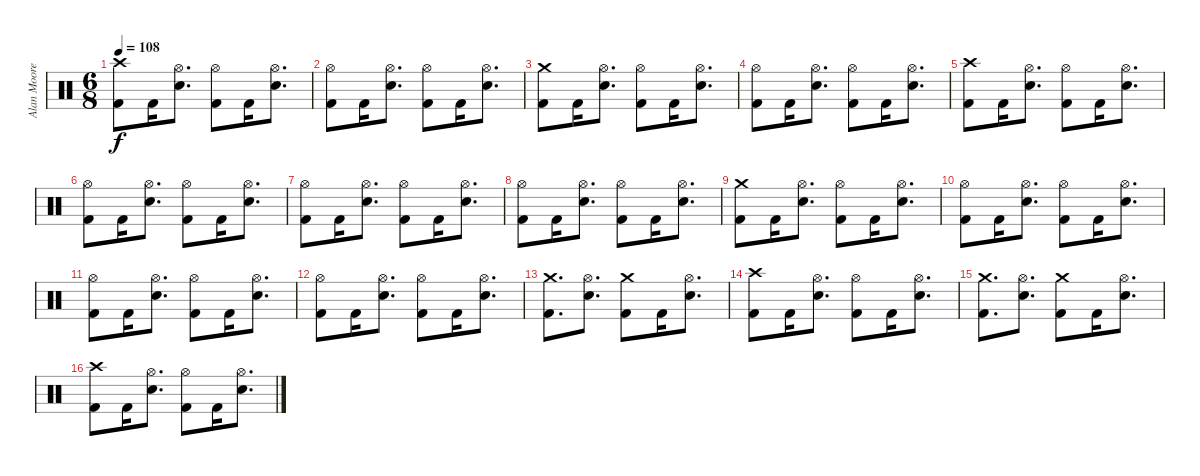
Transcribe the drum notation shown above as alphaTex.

\track ("Alan Moore" "Alan Moore") {instrument percussion}
\staff {score}
\articulation defaults
\ts (6 8)
\tempo 108
\clef neutral
\ks c
("Crash high (hit)" "Kick (hit) 2").8{dy f} "Kick (hit) 2".16 ("Hi-Hat (open)" "Snare (hit) 2").8{d} ("Hi-Hat (open)" "Kick (hit) 2").8 "Kick (hit) 2".16 ("Hi-Hat (open)" "Snare (hit) 2").8{d} |
("Hi-Hat (open)" "Kick (hit) 2").8 "Kick (hit) 2".16 ("Hi-Hat (open)" "Snare (hit) 2").8{d} ("Hi-Hat (open)" "Kick (hit) 2").8 "Kick (hit) 2".16 ("Hi-Hat (open)" "Snare (hit) 2").8{d} |
("Crash medium (hit)" "Kick (hit) 2").8 "Kick (hit) 2".16 ("Hi-Hat (open)" "Snare (hit) 2").8{d} ("Hi-Hat (open)" "Kick (hit) 2").8 "Kick (hit) 2".16 ("Hi-Hat (open)" "Snare (hit) 2").8{d} |
("Hi-Hat (open)" "Kick (hit) 2").8 "Kick (hit) 2".16 ("Hi-Hat (open)" "Snare (hit) 2").8{d} ("Hi-Hat (open)" "Kick (hit) 2").8 "Kick (hit) 2".16 ("Hi-Hat (open)" "Snare (hit) 2").8{d} |
("Crash high (hit)" "Kick (hit) 2").8 "Kick (hit) 2".16 ("Hi-Hat (open)" "Snare (hit) 2").8{d} ("Hi-Hat (open)" "Kick (hit) 2").8 "Kick (hit) 2".16 ("Hi-Hat (open)" "Snare (hit) 2").8{d} |
("Hi-Hat (open)" "Kick (hit) 2").8 "Kick (hit) 2".16 ("Hi-Hat (open)" "Snare (hit) 2").8{d} ("Hi-Hat (open)" "Kick (hit) 2").8 "Kick (hit) 2".16 ("Hi-Hat (open)" "Snare (hit) 2").8{d} |
("Hi-Hat (open)" "Kick (hit) 2").8 "Kick (hit) 2".16 ("Hi-Hat (open)" "Snare (hit) 2").8{d} ("Hi-Hat (open)" "Kick (hit) 2").8 "Kick (hit) 2".16 ("Hi-Hat (open)" "Snare (hit) 2").8{d} |
("Hi-Hat (open)" "Kick (hit) 2").8 "Kick (hit) 2".16 ("Hi-Hat (open)" "Snare (hit) 2").8{d} ("Hi-Hat (open)" "Kick (hit) 2").8 "Kick (hit) 2".16 ("Hi-Hat (open)" "Snare (hit) 2").8{d} |
("Crash medium (hit)" "Kick (hit) 2").8 "Kick (hit) 2".16 ("Hi-Hat (open)" "Snare (hit) 2").8{d} ("Hi-Hat (open)" "Kick (hit) 2").8 "Kick (hit) 2".16 ("Hi-Hat (open)" "Snare (hit) 2").8{d} |
("Hi-Hat (open)" "Kick (hit) 2").8 "Kick (hit) 2".16 ("Hi-Hat (open)" "Snare (hit) 2").8{d} ("Hi-Hat (open)" "Kick (hit) 2").8 "Kick (hit) 2".16 ("Hi-Hat (open)" "Snare (hit) 2").8{d} |
("Hi-Hat (open)" "Kick (hit) 2").8 "Kick (hit) 2".16 ("Hi-Hat (open)" "Snare (hit) 2").8{d} ("Hi-Hat (open)" "Kick (hit) 2").8 "Kick (hit) 2".16 ("Hi-Hat (open)" "Snare (hit) 2").8{d} |
("Hi-Hat (open)" "Kick (hit) 2").8 "Kick (hit) 2".16 ("Hi-Hat (open)" "Snare (hit) 2").8{d} ("Hi-Hat (open)" "Kick (hit) 2").8 "Kick (hit) 2".16 ("Hi-Hat (open)" "Snare (hit) 2").8{d} |
("Crash medium (hit)" "Kick (hit) 2").8{d} ("Hi-Hat (open)" "Snare (hit) 2").8{d} ("Crash medium (hit)" "Kick (hit) 2").8 "Kick (hit) 2".16 ("Hi-Hat (open)" "Snare (hit) 2").8{d} |
("Crash high (hit)" "Kick (hit) 2").8 "Kick (hit) 2".16 ("Hi-Hat (open)" "Snare (hit) 2").8{d} ("Hi-Hat (open)" "Kick (hit) 2").8 "Kick (hit) 2".16 ("Hi-Hat (open)" "Snare (hit) 2").8{d} |
("Crash medium (hit)" "Kick (hit) 2").8{d} ("Hi-Hat (open)" "Snare (hit) 2").8{d} ("Crash medium (hit)" "Kick (hit) 2").8 "Kick (hit) 2".16 ("Hi-Hat (open)" "Snare (hit) 2").8{d} |
("Crash high (hit)" "Kick (hit) 2").8 "Kick (hit) 2".16 ("Hi-Hat (open)" "Snare (hit) 2").8{d} ("Hi-Hat (open)" "Kick (hit) 2").8 "Kick (hit) 2".16 ("Hi-Hat (open)" "Snare (hit) 2").8{d}
